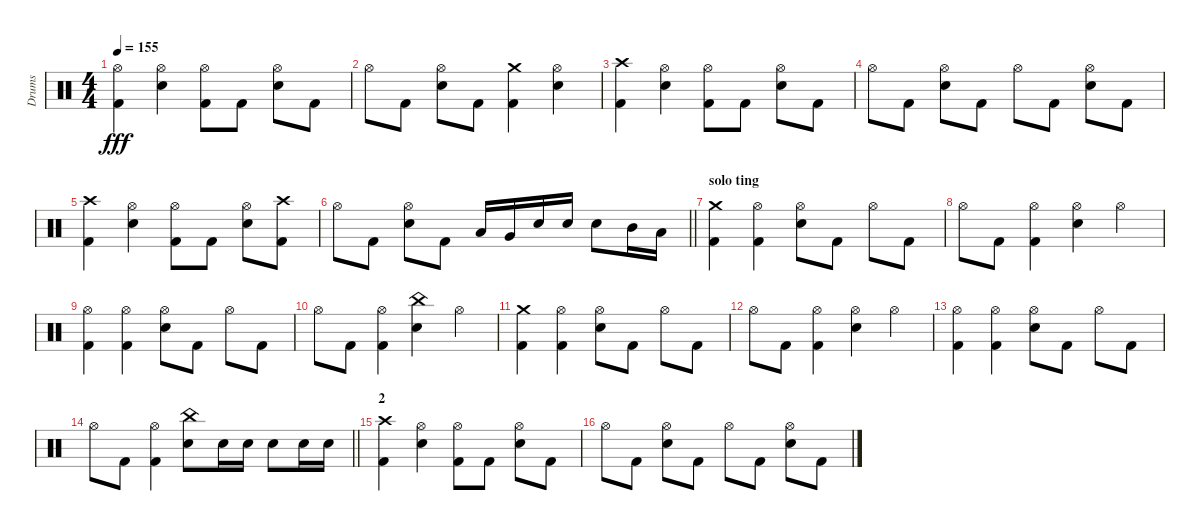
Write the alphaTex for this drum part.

\track ("Drums" "Drums") {instrument percussion}
\staff {score}
\articulation defaults
\ts (4 4)
\tempo 155
\clef neutral
\ks c
("Hi-Hat (open)" "Kick (hit) 2").4{dy fff} ("Snare (hit) 2" "Hi-Hat (open)").4 ("Hi-Hat (open)" "Kick (hit) 2").8 "Kick (hit) 2".8 ("Snare (hit) 2" "Hi-Hat (open)").8 "Kick (hit) 2".8 |
"Hi-Hat (open)".8 "Kick (hit) 2".8 ("Snare (hit) 2" "Hi-Hat (open)").8 "Kick (hit) 2".8 ("Crash medium (hit)" "Kick (hit) 2").4 ("Snare (hit) 2" "Hi-Hat (open)").4 |
("Crash high (hit)" "Kick (hit) 2").4 ("Snare (hit) 2" "Hi-Hat (open)").4 ("Hi-Hat (open)" "Kick (hit) 2").8 "Kick (hit) 2".8 ("Snare (hit) 2" "Hi-Hat (open)").8 "Kick (hit) 2".8 |
"Hi-Hat (open)".8 "Kick (hit) 2".8 ("Snare (hit) 2" "Hi-Hat (open)").8 "Kick (hit) 2".8 "Hi-Hat (open)".8 "Kick (hit) 2".8 ("Snare (hit) 2" "Hi-Hat (open)").8 "Kick (hit) 2".8 |
("Crash high (hit)" "Kick (hit) 2").4 ("Snare (hit) 2" "Hi-Hat (open)").4 ("Hi-Hat (open)" "Kick (hit) 2").8 "Kick (hit) 2".8 ("Snare (hit) 2" "Hi-Hat (open)").8 ("Crash high (hit)" "Kick (hit) 2").8 |
\barLineRight lightlight "Hi-Hat (open)".8 "Kick (hit) 2".8
("Snare (hit) 2" "Hi-Hat (open)").8 "Kick (hit) 2".8 "Low Floor Tom (hit)".16 "Very Low Tom (hit)".16 "Snare (hit) 2".16 "Snare (hit) 2".16 "Snare (hit) 2".8 "Mid Tom (hit)".16 "Low Tom (hit)".16 |
\section ("" "solo ting")
("Crash medium (hit)" "Kick (hit) 2").4 ("Hi-Hat (open)" "Kick (hit) 2").4 ("Snare (hit) 2" "Hi-Hat (open)").8 "Kick (hit) 2".8 "Hi-Hat (open)".8 "Kick (hit) 2".8 |
"Hi-Hat (open)".8 "Kick (hit) 2".8 ("Hi-Hat (open)" "Kick (hit) 2").4 ("Snare (hit) 2" "Hi-Hat (open)").4 "Hi-Hat (open)".4 |
("Hi-Hat (open)" "Kick (hit) 2").4 ("Hi-Hat (open)" "Kick (hit) 2").4 ("Snare (hit) 2" "Hi-Hat (open)").8 "Kick (hit) 2".8 "Hi-Hat (open)".8 "Kick (hit) 2".8 |
"Hi-Hat (open)".8 "Kick (hit) 2".8 ("Hi-Hat (open)" "Kick (hit) 2").4 ("China (hit)" "Snare (hit) 2").4 "Hi-Hat (open)".4 |
("Crash medium (hit)" "Kick (hit) 2").4 ("Hi-Hat (open)" "Kick (hit) 2").4 ("Snare (hit) 2" "Hi-Hat (open)").8 "Kick (hit) 2".8 "Hi-Hat (open)".8 "Kick (hit) 2".8 |
"Hi-Hat (open)".8 "Kick (hit) 2".8 ("Hi-Hat (open)" "Kick (hit) 2").4 ("Snare (hit) 2" "Hi-Hat (open)").4 "Hi-Hat (open)".4 |
("Hi-Hat (open)" "Kick (hit) 2").4 ("Hi-Hat (open)" "Kick (hit) 2").4 ("Snare (hit) 2" "Hi-Hat (open)").8 "Kick (hit) 2".8 "Hi-Hat (open)".8 "Kick (hit) 2".8 |
\barLineRight lightlight "Hi-Hat (open)".8 "Kick (hit) 2".8
("Hi-Hat (open)" "Kick (hit) 2").4 ("China (hit)" "Snare (hit) 2").8 "Snare (hit) 2".16 "Snare (hit) 2".16 "Snare (hit) 2".8 "Snare (hit) 2".16 "Snare (hit) 2".16 |
\section ("" "2")
("Crash high (hit)" "Kick (hit) 2").4 ("Snare (hit) 2" "Hi-Hat (open)").4 ("Hi-Hat (open)" "Kick (hit) 2").8 "Kick (hit) 2".8 ("Snare (hit) 2" "Hi-Hat (open)").8 "Kick (hit) 2".8 |
"Hi-Hat (open)".8 "Kick (hit) 2".8 ("Snare (hit) 2" "Hi-Hat (open)").8 "Kick (hit) 2".8 "Hi-Hat (open)".8 "Kick (hit) 2".8 ("Snare (hit) 2" "Hi-Hat (open)").8 "Kick (hit) 2".8
